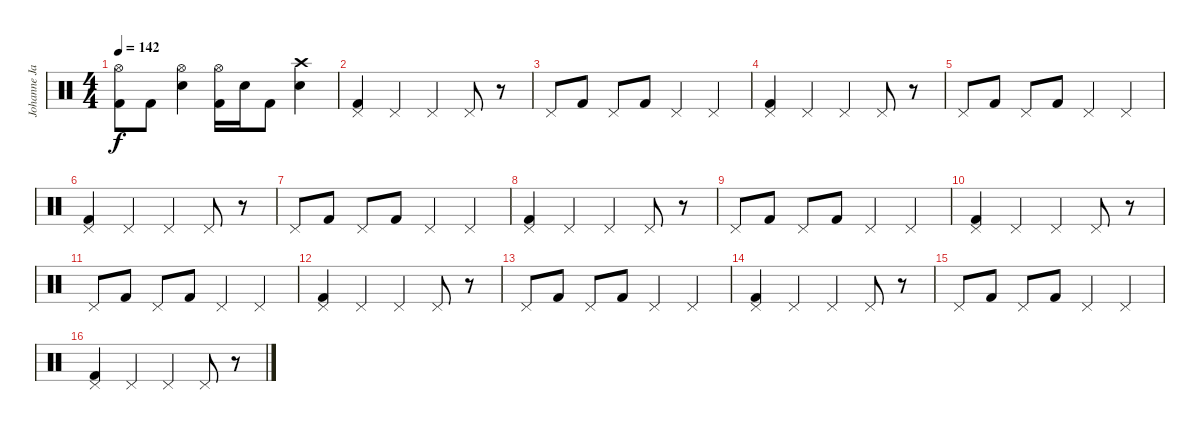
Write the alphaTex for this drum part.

\track ("Johanne James" "Johanne Ja") {instrument percussion}
\staff {score}
\articulation defaults
\ts (4 4)
\tempo 142
\clef neutral
\ks c
("Hi-Hat (open)" "Kick (hit) 2").8{dy f} "Kick (hit) 2".8 ("Hi-Hat (open)" "Snare (hit) 2").4 ("Hi-Hat (open)" "Kick (hit) 2").16 "Snare (hit) 2".16 "Kick (hit) 2".8 ("Crash high (hit)" "Snare (hit) 2").4 |
("Pedal Hi-Hat (hit)" "Kick (hit) 2").4 "Pedal Hi-Hat (hit)".4 "Pedal Hi-Hat (hit)".4 "Pedal Hi-Hat (hit)".8 r.8 |
"Pedal Hi-Hat (hit)".8 "Kick (hit) 2".8 "Pedal Hi-Hat (hit)".8 "Kick (hit) 2".8 "Pedal Hi-Hat (hit)".4 "Pedal Hi-Hat (hit)".4 |
("Pedal Hi-Hat (hit)" "Kick (hit) 2").4 "Pedal Hi-Hat (hit)".4 "Pedal Hi-Hat (hit)".4 "Pedal Hi-Hat (hit)".8 r.8 |
"Pedal Hi-Hat (hit)".8 "Kick (hit) 2".8 "Pedal Hi-Hat (hit)".8 "Kick (hit) 2".8 "Pedal Hi-Hat (hit)".4 "Pedal Hi-Hat (hit)".4 |
("Pedal Hi-Hat (hit)" "Kick (hit) 2").4 "Pedal Hi-Hat (hit)".4 "Pedal Hi-Hat (hit)".4 "Pedal Hi-Hat (hit)".8 r.8 |
"Pedal Hi-Hat (hit)".8 "Kick (hit) 2".8 "Pedal Hi-Hat (hit)".8 "Kick (hit) 2".8 "Pedal Hi-Hat (hit)".4 "Pedal Hi-Hat (hit)".4 |
("Pedal Hi-Hat (hit)" "Kick (hit) 2").4 "Pedal Hi-Hat (hit)".4 "Pedal Hi-Hat (hit)".4 "Pedal Hi-Hat (hit)".8 r.8 |
"Pedal Hi-Hat (hit)".8 "Kick (hit) 2".8 "Pedal Hi-Hat (hit)".8 "Kick (hit) 2".8 "Pedal Hi-Hat (hit)".4 "Pedal Hi-Hat (hit)".4 |
("Pedal Hi-Hat (hit)" "Kick (hit) 2").4 "Pedal Hi-Hat (hit)".4 "Pedal Hi-Hat (hit)".4 "Pedal Hi-Hat (hit)".8 r.8 |
"Pedal Hi-Hat (hit)".8 "Kick (hit) 2".8 "Pedal Hi-Hat (hit)".8 "Kick (hit) 2".8 "Pedal Hi-Hat (hit)".4 "Pedal Hi-Hat (hit)".4 |
("Pedal Hi-Hat (hit)" "Kick (hit) 2").4 "Pedal Hi-Hat (hit)".4 "Pedal Hi-Hat (hit)".4 "Pedal Hi-Hat (hit)".8 r.8 |
"Pedal Hi-Hat (hit)".8 "Kick (hit) 2".8 "Pedal Hi-Hat (hit)".8 "Kick (hit) 2".8 "Pedal Hi-Hat (hit)".4 "Pedal Hi-Hat (hit)".4 |
("Pedal Hi-Hat (hit)" "Kick (hit) 2").4 "Pedal Hi-Hat (hit)".4 "Pedal Hi-Hat (hit)".4 "Pedal Hi-Hat (hit)".8 r.8 |
"Pedal Hi-Hat (hit)".8 "Kick (hit) 2".8 "Pedal Hi-Hat (hit)".8 "Kick (hit) 2".8 "Pedal Hi-Hat (hit)".4 "Pedal Hi-Hat (hit)".4 |
("Pedal Hi-Hat (hit)" "Kick (hit) 2").4 "Pedal Hi-Hat (hit)".4 "Pedal Hi-Hat (hit)".4 "Pedal Hi-Hat (hit)".8 r.8
